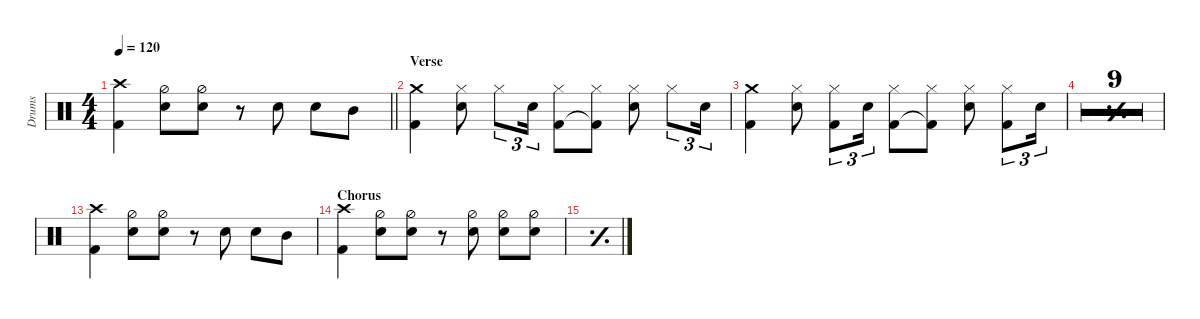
\defaultSystemsLayout 4
\hideDynamics
\bracketExtendMode nobrackets
\otherSystemsTrackNameOrientation horizontal
\track ("Drums" "Drums") {defaultSystemsLayout 8 multiBarRest instrument percussion}
\staff {score}
\articulation defaults
\ts (4 4)
\tempo 120
\clef neutral
\barLineRight lightlight
\ks c
("Crash high (hit)" "Kick (hit) 2").4{dy mf beam Down} ("Snare (hit) 2" "Hi-Hat (half)").8{beam Down} ("Snare (hit) 2" "Hi-Hat (half)").8{beam Down} r.8{beam Down} "Snare (hit) 2".8{beam Down} "Snare (hit) 2".8{beam Down} "Mid Tom (hit)".8{beam Down} |
\section ("" "Verse")
("Kick (hit) 2" "Crash medium (hit)").4{beam Down} ("Snare (hit) 2" "Hi-Hat (closed)").8{beam Down} "Hi-Hat (closed)".8{tu (3 2) beam Down} "Snare (hit) 2".16{tu (3 2) beam Down} ("Kick (hit) 2" "Hi-Hat (closed)").8{beam Down} ("Kick (hit) 2"{t} "Hi-Hat (closed)").8{beam Down} ("Snare (hit) 2" "Hi-Hat (closed)").8{beam Down} "Hi-Hat (closed)".8{tu (3 2) beam Down} "Snare (hit) 2".16{tu (3 2) beam Down} |
("Kick (hit) 2" "Crash medium (hit)").4{beam Down} ("Snare (hit) 2" "Hi-Hat (closed)").8{beam Down} ("Hi-Hat (closed)" "Kick (hit) 2").8{tu (3 2) beam Down} "Snare (hit) 2".16{tu (3 2) beam Down} ("Kick (hit) 2" "Hi-Hat (closed)").8{beam Down} ("Kick (hit) 2"{t} "Hi-Hat (closed)").8{beam Down} ("Snare (hit) 2" "Hi-Hat (closed)").8{beam Down} ("Hi-Hat (closed)" "Kick (hit) 2").8{tu (3 2) beam Down} "Snare (hit) 2".16{tu (3 2) beam Down} |
\simile simple
|
|
|
|
|
|
|
|
|
\simile none
("Crash high (hit)" "Kick (hit) 2").4{beam Down} ("Snare (hit) 2" "Hi-Hat (half)").8{beam Down} ("Snare (hit) 2" "Hi-Hat (half)").8{beam Down} r.8{beam Down} "Snare (hit) 2".8{beam Down} "Snare (hit) 2".8{beam Down} "Mid Tom (hit)".8{beam Down} |
\section ("" "Chorus")
("Crash high (hit)" "Kick (hit) 2").4{beam Down} ("Snare (hit) 2" "Hi-Hat (half)").8{beam Down} ("Snare (hit) 2" "Hi-Hat (half)").8{beam Down} r.8{beam Down} ("Snare (hit) 2" "Hi-Hat (half)").8{beam Down} ("Snare (hit) 2" "Hi-Hat (half)").8{beam Down} ("Snare (hit) 2" "Hi-Hat (half)").8{beam Down} |
\simile simple
